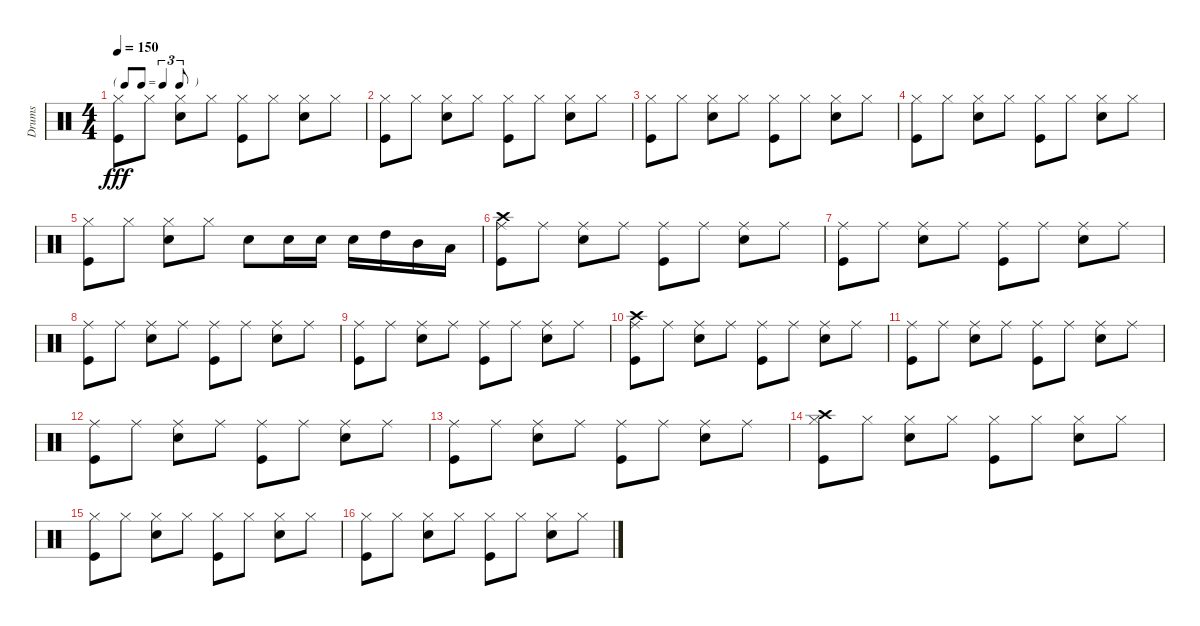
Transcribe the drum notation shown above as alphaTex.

\track ("Drums" "Drums") {instrument percussion}
\staff {score}
\articulation defaults
\ts (4 4)
\tf triplet8th
\tempo 150
\clef neutral
\ks c
("Kick (hit)" "Hi-Hat (closed)").8{dy fff} "Hi-Hat (closed)".8 ("Snare (hit) 2" "Hi-Hat (closed)").8 "Hi-Hat (closed)".8 ("Kick (hit)" "Hi-Hat (closed)").8 "Hi-Hat (closed)".8 ("Snare (hit) 2" "Hi-Hat (closed)").8 "Hi-Hat (closed)".8 |
("Kick (hit)" "Hi-Hat (closed)").8 "Hi-Hat (closed)".8 ("Snare (hit) 2" "Hi-Hat (closed)").8 "Hi-Hat (closed)".8 ("Kick (hit)" "Hi-Hat (closed)").8 "Hi-Hat (closed)".8 ("Snare (hit) 2" "Hi-Hat (closed)").8 "Hi-Hat (closed)".8 |
("Kick (hit)" "Hi-Hat (closed)").8 "Hi-Hat (closed)".8 ("Snare (hit) 2" "Hi-Hat (closed)").8 "Hi-Hat (closed)".8 ("Kick (hit)" "Hi-Hat (closed)").8 "Hi-Hat (closed)".8 ("Snare (hit) 2" "Hi-Hat (closed)").8 "Hi-Hat (closed)".8 |
("Kick (hit)" "Hi-Hat (closed)").8 "Hi-Hat (closed)".8 ("Snare (hit) 2" "Hi-Hat (closed)").8 "Hi-Hat (closed)".8 ("Kick (hit)" "Hi-Hat (closed)").8 "Hi-Hat (closed)".8 ("Snare (hit) 2" "Hi-Hat (closed)").8 "Hi-Hat (closed)".8 |
("Kick (hit)" "Hi-Hat (closed)").8 "Hi-Hat (closed)".8 ("Snare (hit) 2" "Hi-Hat (closed)").8 "Hi-Hat (closed)".8 "Snare (hit) 2".8 "Snare (hit) 2".16 "Snare (hit) 2".16 "Snare (hit) 2".16 "High Tom (hit)".16 "Mid Tom (hit)".16 "Low Tom (hit)".16 |
("Kick (hit)" "Ride (middle)" "Crash high (hit)").8 "Ride (middle)".8 ("Snare (hit) 2" "Ride (middle)").8 "Ride (middle)".8 ("Kick (hit)" "Ride (middle)").8 "Ride (middle)".8 ("Snare (hit) 2" "Ride (middle)").8 "Ride (middle)".8 |
("Kick (hit)" "Ride (middle)").8 "Ride (middle)".8 ("Snare (hit) 2" "Ride (middle)").8 "Ride (middle)".8 ("Kick (hit)" "Ride (middle)").8 "Ride (middle)".8 ("Snare (hit) 2" "Ride (middle)").8 "Ride (middle)".8 |
("Kick (hit)" "Ride (middle)").8 "Ride (middle)".8 ("Snare (hit) 2" "Ride (middle)").8 "Ride (middle)".8 ("Kick (hit)" "Ride (middle)").8 "Ride (middle)".8 ("Snare (hit) 2" "Ride (middle)").8 "Ride (middle)".8 |
("Kick (hit)" "Ride (middle)").8 "Ride (middle)".8 ("Snare (hit) 2" "Ride (middle)").8 "Ride (middle)".8 ("Kick (hit)" "Ride (middle)").8 "Ride (middle)".8 ("Snare (hit) 2" "Ride (middle)").8 "Ride (middle)".8 |
("Kick (hit)" "Ride (middle)" "Crash high (hit)").8 "Ride (middle)".8 ("Snare (hit) 2" "Ride (middle)").8 "Ride (middle)".8 ("Kick (hit)" "Ride (middle)").8 "Ride (middle)".8 ("Snare (hit) 2" "Ride (middle)").8 "Ride (middle)".8 |
("Kick (hit)" "Ride (middle)").8 "Ride (middle)".8 ("Snare (hit) 2" "Ride (middle)").8 "Ride (middle)".8 ("Kick (hit)" "Ride (middle)").8 "Ride (middle)".8 ("Snare (hit) 2" "Ride (middle)").8 "Ride (middle)".8 |
("Kick (hit)" "Ride (middle)").8 "Ride (middle)".8 ("Snare (hit) 2" "Ride (middle)").8 "Ride (middle)".8 ("Kick (hit)" "Ride (middle)").8 "Ride (middle)".8 ("Snare (hit) 2" "Ride (middle)").8 "Ride (middle)".8 |
("Kick (hit)" "Ride (middle)").8 "Ride (middle)".8 ("Snare (hit) 2" "Ride (middle)").8 "Ride (middle)".8 ("Kick (hit)" "Ride (middle)").8 "Ride (middle)".8 ("Snare (hit) 2" "Ride (middle)").8 "Ride (middle)".8 |
("Kick (hit)" "Hi-Hat (closed)" "Crash high (hit)").8 "Hi-Hat (closed)".8 ("Snare (hit) 2" "Hi-Hat (closed)").8 "Hi-Hat (closed)".8 ("Kick (hit)" "Hi-Hat (closed)").8 "Hi-Hat (closed)".8 ("Snare (hit) 2" "Hi-Hat (closed)").8 "Hi-Hat (closed)".8 |
("Kick (hit)" "Hi-Hat (closed)").8 "Hi-Hat (closed)".8 ("Snare (hit) 2" "Hi-Hat (closed)").8 "Hi-Hat (closed)".8 ("Kick (hit)" "Hi-Hat (closed)").8 "Hi-Hat (closed)".8 ("Snare (hit) 2" "Hi-Hat (closed)").8 "Hi-Hat (closed)".8 |
("Kick (hit)" "Hi-Hat (closed)").8 "Hi-Hat (closed)".8 ("Snare (hit) 2" "Hi-Hat (closed)").8 "Hi-Hat (closed)".8 ("Kick (hit)" "Hi-Hat (closed)").8 "Hi-Hat (closed)".8 ("Snare (hit) 2" "Hi-Hat (closed)").8 "Hi-Hat (closed)".8
